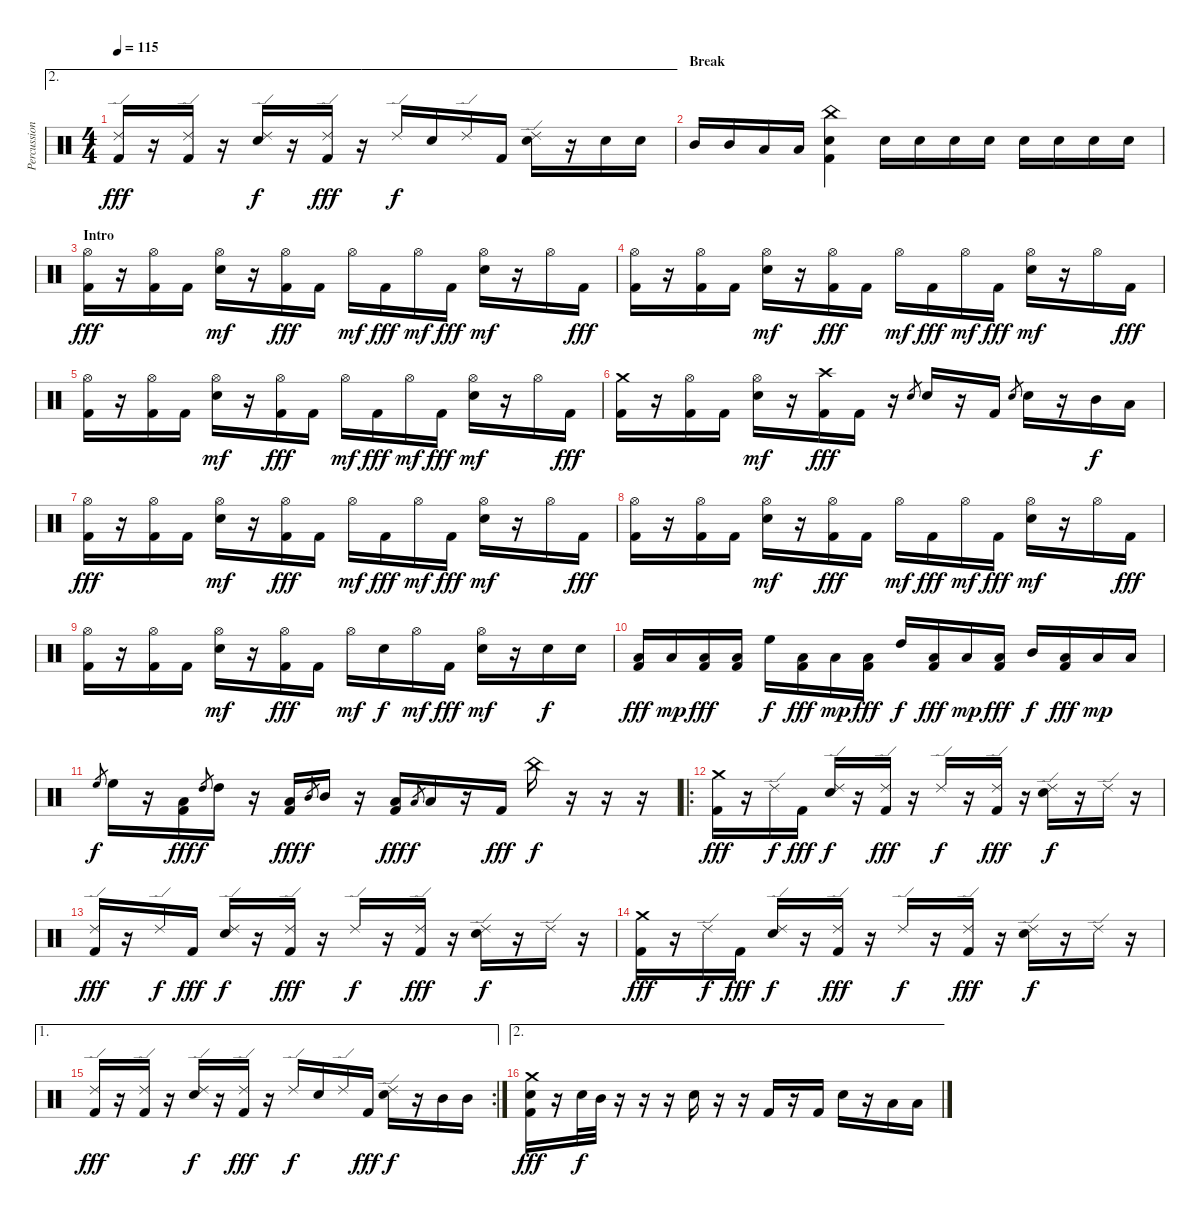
\track ("Percussion" "Percussion") {instrument percussion}
\staff {score}
\articulation defaults
\ae 2
\ts (4 4)
\tempo 115
\clef neutral
\ks c
("Ride (edge) 2" "Kick (hit) 2").16{dy fff} r.16 ("Ride (edge) 2" "Kick (hit) 2").16 r.16 ("Ride (edge) 2" "Electric Snare (hit)").16{dy f} r.16 ("Ride (edge) 2" "Kick (hit) 2").16{dy fff} r.16 "Ride (edge) 2".16{dy f} "Electric Snare (hit)".16 "Ride (edge) 2".16 "Kick (hit) 2".16 ("Ride (edge) 2" "Electric Snare (hit)").16 r.16 "Electric Snare (hit)".16 "Electric Snare (hit)".16 |
\section ("" "Break")
"Mid Tom (hit)".16 "Mid Tom (hit)".16 "Low Tom (hit)".16 "Low Tom (hit)".16 ("China (hit)" "Electric Snare (hit)" "Kick (hit) 2").4 "Electric Snare (hit)".16 "Electric Snare (hit)".16 "Electric Snare (hit)".16 "Electric Snare (hit)".16 "Electric Snare (hit)".16 "Electric Snare (hit)".16 "Electric Snare (hit)".16 "Electric Snare (hit)".16 |
\section ("" "Intro ")
("Hi-Hat (open)" "Kick (hit) 2").16{dy fff} r.16 ("Hi-Hat (open)" "Kick (hit) 2").16 "Kick (hit) 2".16 ("Hi-Hat (open)" "Electric Snare (hit)").16{dy mf} r.16 ("Hi-Hat (open)" "Kick (hit) 2").16{dy fff} "Kick (hit) 2".16 "Hi-Hat (open)".16{dy mf} "Kick (hit) 2".16{dy fff} "Hi-Hat (open)".16{dy mf} "Kick (hit) 2".16{dy fff} ("Hi-Hat (open)" "Electric Snare (hit)").16{dy mf} r.16 "Hi-Hat (open)".16 "Kick (hit) 2".16{dy fff} |
("Hi-Hat (open)" "Kick (hit) 2").16 r.16 ("Hi-Hat (open)" "Kick (hit) 2").16 "Kick (hit) 2".16 ("Hi-Hat (open)" "Electric Snare (hit)").16{dy mf} r.16 ("Hi-Hat (open)" "Kick (hit) 2").16{dy fff} "Kick (hit) 2".16 "Hi-Hat (open)".16{dy mf} "Kick (hit) 2".16{dy fff} "Hi-Hat (open)".16{dy mf} "Kick (hit) 2".16{dy fff} ("Hi-Hat (open)" "Electric Snare (hit)").16{dy mf} r.16 "Hi-Hat (open)".16 "Kick (hit) 2".16{dy fff} |
("Hi-Hat (open)" "Kick (hit) 2").16 r.16 ("Hi-Hat (open)" "Kick (hit) 2").16 "Kick (hit) 2".16 ("Hi-Hat (open)" "Electric Snare (hit)").16{dy mf} r.16 ("Hi-Hat (open)" "Kick (hit) 2").16{dy fff} "Kick (hit) 2".16 "Hi-Hat (open)".16{dy mf} "Kick (hit) 2".16{dy fff} "Hi-Hat (open)".16{dy mf} "Kick (hit) 2".16{dy fff} ("Hi-Hat (open)" "Electric Snare (hit)").16{dy mf} r.16 "Hi-Hat (open)".16 "Kick (hit) 2".16{dy fff} |
("Crash medium (hit)" "Kick (hit) 2").16 r.16 ("Hi-Hat (open)" "Kick (hit) 2").16 "Kick (hit) 2".16 ("Hi-Hat (open)" "Electric Snare (hit)").16{dy mf} r.16 ("Crash high (hit)" "Kick (hit) 2").16{dy fff} "Kick (hit) 2".16 r.16 "Electric Snare (hit)".8{gr} "Electric Snare (hit)".16 r.16 "Kick (hit) 2".16 "Electric Snare (hit)".8{gr} "Electric Snare (hit)".16 r.16 "Mid Tom (hit)".16{dy f} "Low Tom (hit)".16 |
("Hi-Hat (open)" "Kick (hit) 2").16{dy fff} r.16 ("Hi-Hat (open)" "Kick (hit) 2").16 "Kick (hit) 2".16 ("Hi-Hat (open)" "Electric Snare (hit)").16{dy mf} r.16 ("Hi-Hat (open)" "Kick (hit) 2").16{dy fff} "Kick (hit) 2".16 "Hi-Hat (open)".16{dy mf} "Kick (hit) 2".16{dy fff} "Hi-Hat (open)".16{dy mf} "Kick (hit) 2".16{dy fff} ("Hi-Hat (open)" "Electric Snare (hit)").16{dy mf} r.16 "Hi-Hat (open)".16 "Kick (hit) 2".16{dy fff} |
("Hi-Hat (open)" "Kick (hit) 2").16 r.16 ("Hi-Hat (open)" "Kick (hit) 2").16 "Kick (hit) 2".16 ("Hi-Hat (open)" "Electric Snare (hit)").16{dy mf} r.16 ("Hi-Hat (open)" "Kick (hit) 2").16{dy fff} "Kick (hit) 2".16 "Hi-Hat (open)".16{dy mf} "Kick (hit) 2".16{dy fff} "Hi-Hat (open)".16{dy mf} "Kick (hit) 2".16{dy fff} ("Hi-Hat (open)" "Electric Snare (hit)").16{dy mf} r.16 "Hi-Hat (open)".16 "Kick (hit) 2".16{dy fff} |
("Hi-Hat (open)" "Kick (hit) 2").16 r.16 ("Hi-Hat (open)" "Kick (hit) 2").16 "Kick (hit) 2".16 ("Hi-Hat (open)" "Electric Snare (hit)").16{dy mf} r.16 ("Hi-Hat (open)" "Kick (hit) 2").16{dy fff} "Kick (hit) 2".16 "Hi-Hat (open)".16{dy mf} "Electric Snare (hit)".16{dy f} "Hi-Hat (open)".16{dy mf} "Kick (hit) 2".16{dy fff} ("Hi-Hat (open)" "Electric Snare (hit)").16{dy mf} r.16 "Electric Snare (hit)".16{dy f} "Electric Snare (hit)".16 |
("Low Floor Tom (hit)" "Kick (hit) 2").16{dy fff} "Low Floor Tom (hit)".16{dy mp} ("Low Floor Tom (hit)" "Kick (hit) 2").16{dy fff} ("Low Floor Tom (hit)" "Kick (hit) 2").16 "High Floor Tom (hit)".16{dy f} ("Low Floor Tom (hit)" "Kick (hit) 2").16{dy fff} "Low Floor Tom (hit)".16{dy mp} ("Low Floor Tom (hit)" "Kick (hit) 2").16{dy fff} "High Tom (hit)".16{dy f} ("Low Floor Tom (hit)" "Kick (hit) 2").16{dy fff} "Low Floor Tom (hit)".16{dy mp} ("Low Floor Tom (hit)" "Kick (hit) 2").16{dy fff} "Mid Tom (hit)".16{dy f} ("Low Floor Tom (hit)" "Kick (hit) 2").16{dy fff} "Low Floor Tom (hit)".16{dy mp} "Low Floor Tom (hit)".16 |
"High Floor Tom (hit)".8{gr dy f} "High Floor Tom (hit)".16 r.16 ("Low Floor Tom (hit)" "Kick (hit) 2").16{dy fff} "High Tom (hit)".8{gr dy f} "High Tom (hit)".16 r.16 ("Low Floor Tom (hit)" "Kick (hit) 2").16{dy fff} "Mid Tom (hit)".8{gr dy f} "Mid Tom (hit)".16 r.16 ("Low Floor Tom (hit)" "Kick (hit) 2").16{dy fff} "Low Tom (hit)".8{gr dy f} "Low Tom (hit)".16 r.16 "Kick (hit) 2".16{dy fff} "China (hit)".16{dy f} r.16 r.16 r.16 |
\ro
("Crash medium (hit)" "Kick (hit) 2").16{dy fff} r.16 "Ride (edge) 2".16{dy f} "Kick (hit) 2".16{dy fff} ("Ride (edge) 2" "Electric Snare (hit)").16{dy f} r.16 ("Ride (edge) 2" "Kick (hit) 2").16{dy fff} r.16 "Ride (edge) 2".16{dy f} r.16 ("Ride (edge) 2" "Kick (hit) 2").16{dy fff} r.16 ("Ride (edge) 2" "Electric Snare (hit)").16{dy f} r.16 "Ride (edge) 2".16 r.16 |
("Ride (edge) 2" "Kick (hit) 2").16{dy fff} r.16 "Ride (edge) 2".16{dy f} "Kick (hit) 2".16{dy fff} ("Ride (edge) 2" "Electric Snare (hit)").16{dy f} r.16 ("Ride (edge) 2" "Kick (hit) 2").16{dy fff} r.16 "Ride (edge) 2".16{dy f} r.16 ("Ride (edge) 2" "Kick (hit) 2").16{dy fff} r.16 ("Ride (edge) 2" "Electric Snare (hit)").16{dy f} r.16 "Ride (edge) 2".16 r.16 |
("Crash medium (hit)" "Kick (hit) 2").16{dy fff} r.16 "Ride (edge) 2".16{dy f} "Kick (hit) 2".16{dy fff} ("Ride (edge) 2" "Electric Snare (hit)").16{dy f} r.16 ("Ride (edge) 2" "Kick (hit) 2").16{dy fff} r.16 "Ride (edge) 2".16{dy f} r.16 ("Ride (edge) 2" "Kick (hit) 2").16{dy fff} r.16 ("Ride (edge) 2" "Electric Snare (hit)").16{dy f} r.16 "Ride (edge) 2".16 r.16 |
\ae 1
\rc 2
("Ride (edge) 2" "Kick (hit) 2").16{dy fff} r.16 ("Ride (edge) 2" "Kick (hit) 2").16 r.16 ("Ride (edge) 2" "Electric Snare (hit)").16{dy f} r.16 ("Ride (edge) 2" "Kick (hit) 2").16{dy fff} r.16 "Ride (edge) 2".16{dy f} "Electric Snare (hit)".16 "Ride (edge) 2".16 "Kick (hit) 2".16{dy fff} ("Ride (edge) 2" "Electric Snare (hit)").16{dy f} r.16 "Mid Tom (hit)".16 "Mid Tom (hit)".16 |
\ae 2
("Crash medium (hit)" "Electric Snare (hit)" "Kick (hit) 2").16{dy fff} r.16 "Electric Snare (hit)".32{dy f} "Mid Tom (hit)".32 r.16 r.16 r.16 "Electric Snare (hit)".16 r.16 r.16 "Kick (hit) 2".16 r.16 "Kick (hit) 2".16 "Electric Snare (hit)".16 r.16 "Low Tom (hit)".16 "Low Tom (hit)".16
